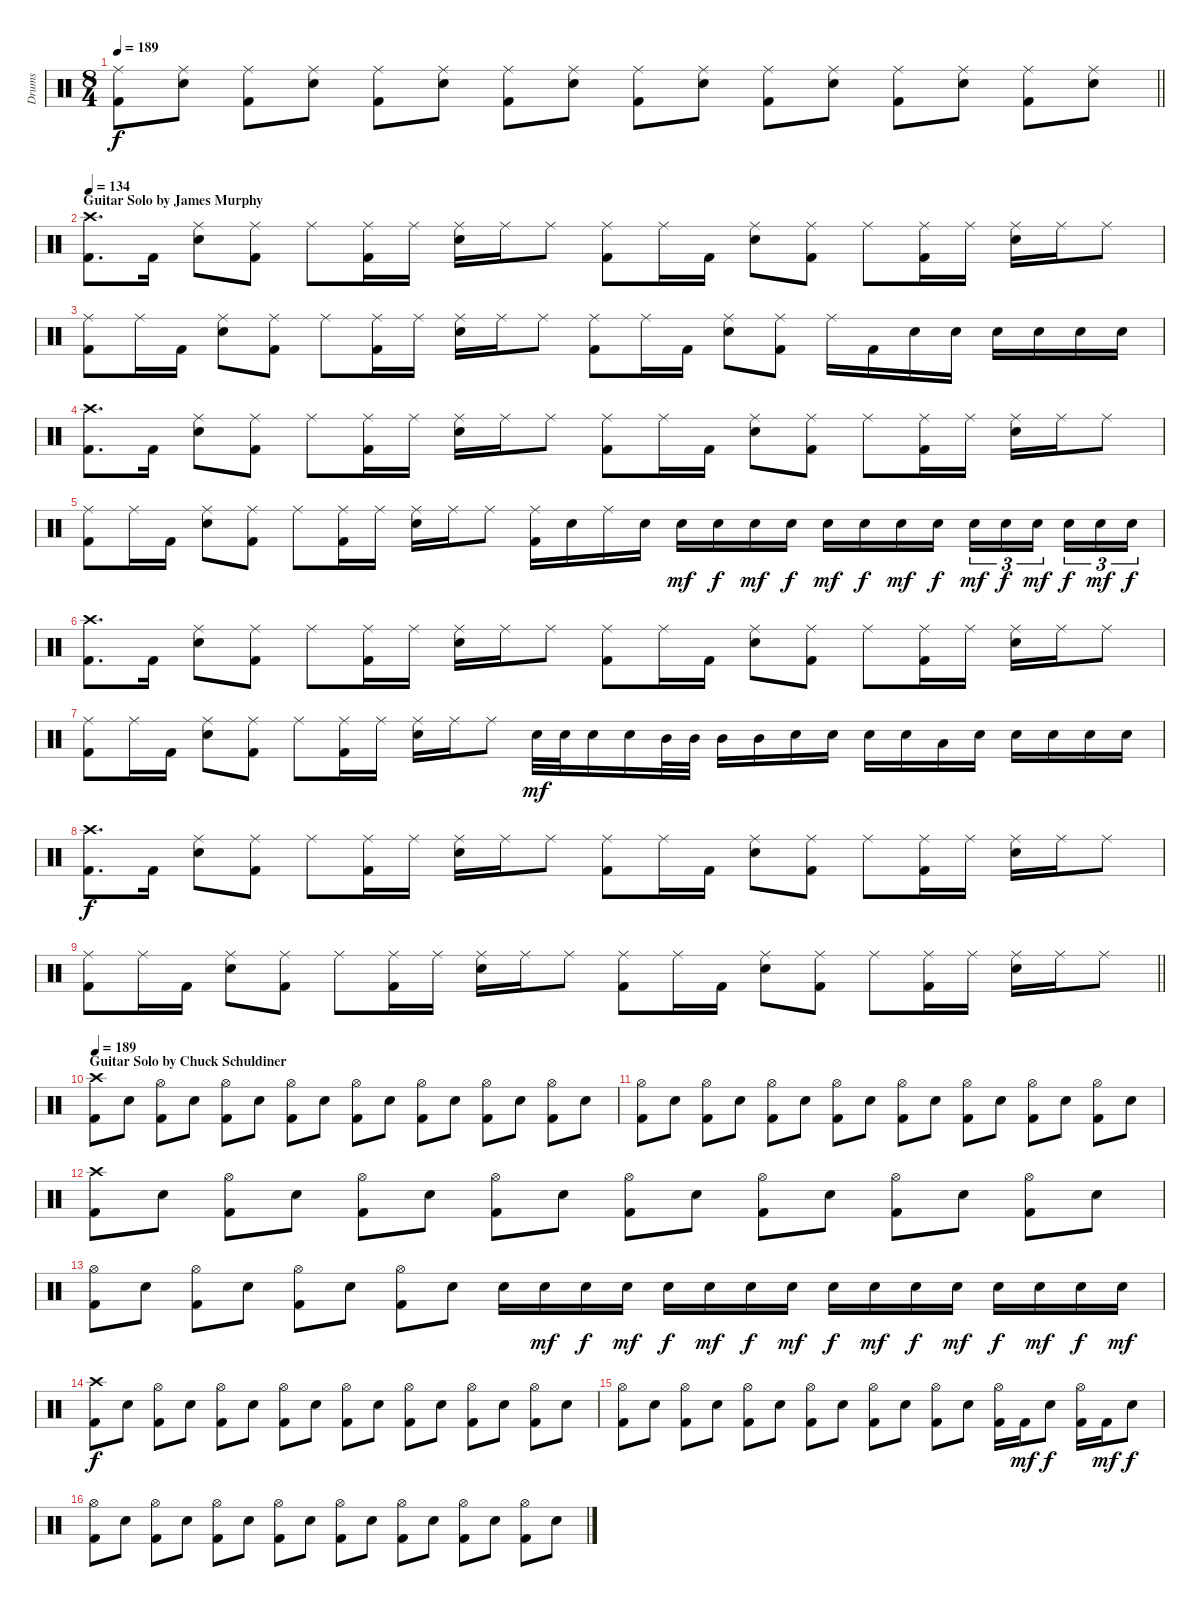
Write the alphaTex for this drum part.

\track ("Drums" "Drums") {instrument percussion}
\staff {score}
\articulation defaults
\ts (8 4)
\tempo 189
\clef neutral
\barLineRight lightlight
\ks c
("Ride (middle)" "Kick (hit) 2").8{dy f} ("Ride (middle)" "Snare (hit) 2").8 ("Ride (middle)" "Kick (hit) 2").8 ("Ride (middle)" "Snare (hit) 2").8 ("Ride (middle)" "Kick (hit) 2").8 ("Ride (middle)" "Snare (hit) 2").8 ("Ride (middle)" "Kick (hit) 2").8 ("Ride (middle)" "Snare (hit) 2").8 ("Ride (middle)" "Kick (hit) 2").8 ("Ride (middle)" "Snare (hit) 2").8 ("Ride (middle)" "Kick (hit) 2").8 ("Ride (middle)" "Snare (hit) 2").8 ("Ride (middle)" "Kick (hit) 2").8 ("Ride (middle)" "Snare (hit) 2").8 ("Ride (middle)" "Kick (hit) 2").8 ("Ride (middle)" "Snare (hit) 2").8 |
\section ("" "Guitar Solo by James Murphy")
\tempo 134
("Crash high (hit)" "Kick (hit) 2").8{d} "Kick (hit) 2".16 ("Ride (middle)" "Snare (hit) 2").8 ("Ride (middle)" "Kick (hit) 2").8 "Ride (middle)".8 ("Ride (middle)" "Kick (hit) 2").16 "Ride (middle)".16 ("Ride (middle)" "Snare (hit) 2").16 "Ride (middle)".16 "Ride (middle)".8 ("Ride (middle)" "Kick (hit) 2").8 "Ride (middle)".16 "Kick (hit) 2".16 ("Ride (middle)" "Snare (hit) 2").8 ("Ride (middle)" "Kick (hit) 2").8 "Ride (middle)".8 ("Ride (middle)" "Kick (hit) 2").16 "Ride (middle)".16 ("Ride (middle)" "Snare (hit) 2").16 "Ride (middle)".16 "Ride (middle)".8 |
("Ride (middle)" "Kick (hit) 2").8 "Ride (middle)".16 "Kick (hit) 2".16 ("Ride (middle)" "Snare (hit) 2").8 ("Ride (middle)" "Kick (hit) 2").8 "Ride (middle)".8 ("Ride (middle)" "Kick (hit) 2").16 "Ride (middle)".16 ("Ride (middle)" "Snare (hit) 2").16 "Ride (middle)".16 "Ride (middle)".8 ("Ride (middle)" "Kick (hit) 2").8 "Ride (middle)".16 "Kick (hit) 2".16 ("Ride (middle)" "Snare (hit) 2").8 ("Ride (middle)" "Kick (hit) 2").8 "Ride (middle)".16 "Kick (hit) 2".16 "Snare (hit) 2".16 "Snare (hit) 2".16 "Snare (hit) 2".16 "Snare (hit) 2".16 "Snare (hit) 2".16 "Snare (hit) 2".16 |
("Crash high (hit)" "Kick (hit) 2").8{d} "Kick (hit) 2".16 ("Ride (middle)" "Snare (hit) 2").8 ("Ride (middle)" "Kick (hit) 2").8 "Ride (middle)".8 ("Ride (middle)" "Kick (hit) 2").16 "Ride (middle)".16 ("Ride (middle)" "Snare (hit) 2").16 "Ride (middle)".16 "Ride (middle)".8 ("Ride (middle)" "Kick (hit) 2").8 "Ride (middle)".16 "Kick (hit) 2".16 ("Ride (middle)" "Snare (hit) 2").8 ("Ride (middle)" "Kick (hit) 2").8 "Ride (middle)".8 ("Ride (middle)" "Kick (hit) 2").16 "Ride (middle)".16 ("Ride (middle)" "Snare (hit) 2").16 "Ride (middle)".16 "Ride (middle)".8 |
("Ride (middle)" "Kick (hit) 2").8 "Ride (middle)".16 "Kick (hit) 2".16 ("Ride (middle)" "Snare (hit) 2").8 ("Ride (middle)" "Kick (hit) 2").8 "Ride (middle)".8 ("Ride (middle)" "Kick (hit) 2").16 "Ride (middle)".16 ("Ride (middle)" "Snare (hit) 2").16 "Ride (middle)".16 "Ride (middle)".8 ("Ride (middle)" "Kick (hit) 2").16 "Snare (hit) 2".16 "Ride (middle)".16 "Snare (hit) 2".16 "Snare (hit) 2".16{dy mf} "Snare (hit) 2".16{dy f} "Snare (hit) 2".16{dy mf} "Snare (hit) 2".16{dy f} "Snare (hit) 2".16{dy mf} "Snare (hit) 2".16{dy f} "Snare (hit) 2".16{dy mf} "Snare (hit) 2".16{dy f} "Snare (hit) 2".16{tu (3 2) dy mf} "Snare (hit) 2".16{tu (3 2) dy f} "Snare (hit) 2".16{tu (3 2) dy mf beam splitsecondary} "Snare (hit) 2".16{tu (3 2) dy f} "Snare (hit) 2".16{tu (3 2) dy mf} "Snare (hit) 2".16{tu (3 2) dy f} |
("Crash high (hit)" "Kick (hit) 2").8{d} "Kick (hit) 2".16 ("Ride (middle)" "Snare (hit) 2").8 ("Ride (middle)" "Kick (hit) 2").8 "Ride (middle)".8 ("Ride (middle)" "Kick (hit) 2").16 "Ride (middle)".16 ("Ride (middle)" "Snare (hit) 2").16 "Ride (middle)".16 "Ride (middle)".8 ("Ride (middle)" "Kick (hit) 2").8 "Ride (middle)".16 "Kick (hit) 2".16 ("Ride (middle)" "Snare (hit) 2").8 ("Ride (middle)" "Kick (hit) 2").8 "Ride (middle)".8 ("Ride (middle)" "Kick (hit) 2").16 "Ride (middle)".16 ("Ride (middle)" "Snare (hit) 2").16 "Ride (middle)".16 "Ride (middle)".8 |
("Ride (middle)" "Kick (hit) 2").8 "Ride (middle)".16 "Kick (hit) 2".16 ("Ride (middle)" "Snare (hit) 2").8 ("Ride (middle)" "Kick (hit) 2").8 "Ride (middle)".8 ("Ride (middle)" "Kick (hit) 2").16 "Ride (middle)".16 ("Ride (middle)" "Snare (hit) 2").16 "Ride (middle)".16 "Ride (middle)".8 "Snare (hit) 2".32{dy mf} "Snare (hit) 2".32 "Snare (hit) 2".16 "Snare (hit) 2".16 "Mid Tom (hit)".32 "Mid Tom (hit)".32 "Mid Tom (hit)".16 "Mid Tom (hit)".16 "Snare (hit) 2".16 "Snare (hit) 2".16 "Snare (hit) 2".16 "Snare (hit) 2".16 "Low Tom (hit)".16 "Snare (hit) 2".16 "Snare (hit) 2".16 "Snare (hit) 2".16 "Snare (hit) 2".16 "Snare (hit) 2".16 |
("Crash high (hit)" "Kick (hit) 2").8{d dy f} "Kick (hit) 2".16 ("Ride (middle)" "Snare (hit) 2").8 ("Ride (middle)" "Kick (hit) 2").8 "Ride (middle)".8 ("Ride (middle)" "Kick (hit) 2").16 "Ride (middle)".16 ("Ride (middle)" "Snare (hit) 2").16 "Ride (middle)".16 "Ride (middle)".8 ("Ride (middle)" "Kick (hit) 2").8 "Ride (middle)".16 "Kick (hit) 2".16 ("Ride (middle)" "Snare (hit) 2").8 ("Ride (middle)" "Kick (hit) 2").8 "Ride (middle)".8 ("Ride (middle)" "Kick (hit) 2").16 "Ride (middle)".16 ("Ride (middle)" "Snare (hit) 2").16 "Ride (middle)".16 "Ride (middle)".8 |
\barLineRight lightlight
("Ride (middle)" "Kick (hit) 2").8 "Ride (middle)".16 "Kick (hit) 2".16 ("Ride (middle)" "Snare (hit) 2").8 ("Ride (middle)" "Kick (hit) 2").8 "Ride (middle)".8 ("Ride (middle)" "Kick (hit) 2").16 "Ride (middle)".16 ("Ride (middle)" "Snare (hit) 2").16 "Ride (middle)".16 "Ride (middle)".8 ("Ride (middle)" "Kick (hit) 2").8 "Ride (middle)".16 "Kick (hit) 2".16 ("Ride (middle)" "Snare (hit) 2").8 ("Ride (middle)" "Kick (hit) 2").8 "Ride (middle)".8 ("Ride (middle)" "Kick (hit) 2").16 "Ride (middle)".16 ("Ride (middle)" "Snare (hit) 2").16 "Ride (middle)".16 "Ride (middle)".8 |
\section ("" "Guitar Solo by Chuck Schuldiner")
\tempo 189
("Crash high (hit)" "Kick (hit) 2").8 "Snare (hit) 2".8 ("Hi-Hat (open)" "Kick (hit) 2").8 "Snare (hit) 2".8 ("Hi-Hat (open)" "Kick (hit) 2").8 "Snare (hit) 2".8 ("Hi-Hat (open)" "Kick (hit) 2").8 "Snare (hit) 2".8 ("Hi-Hat (open)" "Kick (hit) 2").8 "Snare (hit) 2".8 ("Hi-Hat (open)" "Kick (hit) 2").8 "Snare (hit) 2".8 ("Hi-Hat (open)" "Kick (hit) 2").8 "Snare (hit) 2".8 ("Hi-Hat (open)" "Kick (hit) 2").8 "Snare (hit) 2".8 |
("Hi-Hat (open)" "Kick (hit) 2").8 "Snare (hit) 2".8 ("Hi-Hat (open)" "Kick (hit) 2").8 "Snare (hit) 2".8 ("Hi-Hat (open)" "Kick (hit) 2").8 "Snare (hit) 2".8 ("Hi-Hat (open)" "Kick (hit) 2").8 "Snare (hit) 2".8 ("Hi-Hat (open)" "Kick (hit) 2").8 "Snare (hit) 2".8 ("Hi-Hat (open)" "Kick (hit) 2").8 "Snare (hit) 2".8 ("Hi-Hat (open)" "Kick (hit) 2").8 "Snare (hit) 2".8 ("Hi-Hat (open)" "Kick (hit) 2").8 "Snare (hit) 2".8 |
("Crash high (hit)" "Kick (hit) 2").8 "Snare (hit) 2".8 ("Hi-Hat (open)" "Kick (hit) 2").8 "Snare (hit) 2".8 ("Hi-Hat (open)" "Kick (hit) 2").8 "Snare (hit) 2".8 ("Hi-Hat (open)" "Kick (hit) 2").8 "Snare (hit) 2".8 ("Hi-Hat (open)" "Kick (hit) 2").8 "Snare (hit) 2".8 ("Hi-Hat (open)" "Kick (hit) 2").8 "Snare (hit) 2".8 ("Hi-Hat (open)" "Kick (hit) 2").8 "Snare (hit) 2".8 ("Hi-Hat (open)" "Kick (hit) 2").8 "Snare (hit) 2".8 |
("Hi-Hat (open)" "Kick (hit) 2").8 "Snare (hit) 2".8 ("Hi-Hat (open)" "Kick (hit) 2").8 "Snare (hit) 2".8 ("Hi-Hat (open)" "Kick (hit) 2").8 "Snare (hit) 2".8 ("Hi-Hat (open)" "Kick (hit) 2").8 "Snare (hit) 2".8 "Snare (hit) 2".16 "Snare (hit) 2".16{dy mf} "Snare (hit) 2".16{dy f} "Snare (hit) 2".16{dy mf} "Snare (hit) 2".16{dy f} "Snare (hit) 2".16{dy mf} "Snare (hit) 2".16{dy f} "Snare (hit) 2".16{dy mf} "Snare (hit) 2".16{dy f} "Snare (hit) 2".16{dy mf} "Snare (hit) 2".16{dy f} "Snare (hit) 2".16{dy mf} "Snare (hit) 2".16{dy f} "Snare (hit) 2".16{dy mf} "Snare (hit) 2".16{dy f} "Snare (hit) 2".16{dy mf} |
("Crash high (hit)" "Kick (hit) 2").8{dy f} "Snare (hit) 2".8 ("Hi-Hat (open)" "Kick (hit) 2").8 "Snare (hit) 2".8 ("Hi-Hat (open)" "Kick (hit) 2").8 "Snare (hit) 2".8 ("Hi-Hat (open)" "Kick (hit) 2").8 "Snare (hit) 2".8 ("Hi-Hat (open)" "Kick (hit) 2").8 "Snare (hit) 2".8 ("Hi-Hat (open)" "Kick (hit) 2").8 "Snare (hit) 2".8 ("Hi-Hat (open)" "Kick (hit) 2").8 "Snare (hit) 2".8 ("Hi-Hat (open)" "Kick (hit) 2").8 "Snare (hit) 2".8 |
("Hi-Hat (open)" "Kick (hit) 2").8 "Snare (hit) 2".8 ("Hi-Hat (open)" "Kick (hit) 2").8 "Snare (hit) 2".8 ("Hi-Hat (open)" "Kick (hit) 2").8 "Snare (hit) 2".8 ("Hi-Hat (open)" "Kick (hit) 2").8 "Snare (hit) 2".8 ("Hi-Hat (open)" "Kick (hit) 2").8 "Snare (hit) 2".8 ("Hi-Hat (open)" "Kick (hit) 2").8 "Snare (hit) 2".8 ("Hi-Hat (open)" "Kick (hit) 2").16 "Kick (hit) 2".16{dy mf} "Snare (hit) 2".8{dy f} ("Hi-Hat (open)" "Kick (hit) 2").16 "Kick (hit) 2".16{dy mf} "Snare (hit) 2".8{dy f} |
("Hi-Hat (open)" "Kick (hit) 2").8 "Snare (hit) 2".8 ("Hi-Hat (open)" "Kick (hit) 2").8 "Snare (hit) 2".8 ("Hi-Hat (open)" "Kick (hit) 2").8 "Snare (hit) 2".8 ("Hi-Hat (open)" "Kick (hit) 2").8 "Snare (hit) 2".8 ("Hi-Hat (open)" "Kick (hit) 2").8 "Snare (hit) 2".8 ("Hi-Hat (open)" "Kick (hit) 2").8 "Snare (hit) 2".8 ("Hi-Hat (open)" "Kick (hit) 2").8 "Snare (hit) 2".8 ("Hi-Hat (open)" "Kick (hit) 2").8 "Snare (hit) 2".8
